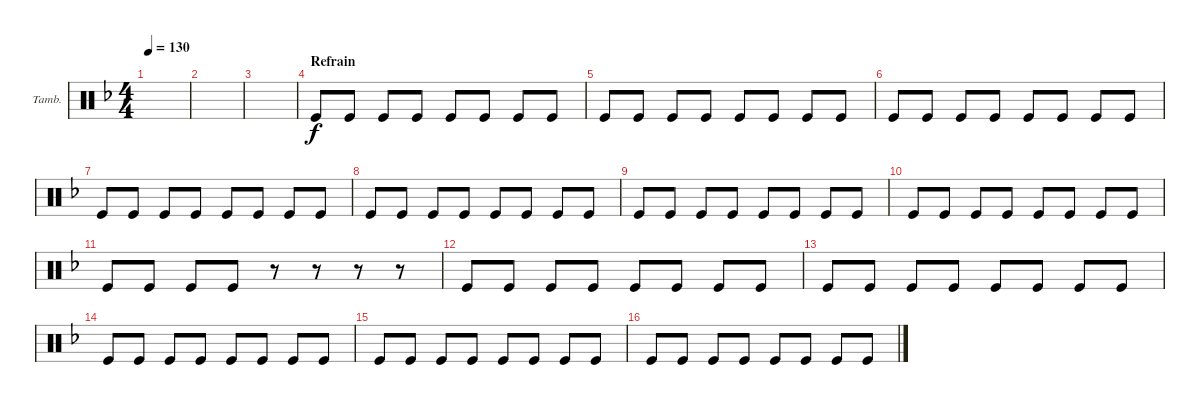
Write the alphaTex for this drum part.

\defaultSystemsLayout 4
\bracketExtendMode groupsimilarinstruments
\firstSystemTrackNameOrientation horizontal
\otherSystemsTrackNameOrientation horizontal
\track ("Tambourine" "Tamb.") {instrument percussion}
\staff {score}
\articulation defaults
\ts (4 4)
\tempo 130
\clef neutral
\ks dminor
|
|
|
\section ("" "Refrain")
"Kick (hit)".8 "Kick (hit)".8 "Kick (hit)".8 "Kick (hit)".8 "Kick (hit)".8 "Kick (hit)".8 "Kick (hit)".8 "Kick (hit)".8 |
"Kick (hit)".8 "Kick (hit)".8 "Kick (hit)".8 "Kick (hit)".8 "Kick (hit)".8 "Kick (hit)".8 "Kick (hit)".8 "Kick (hit)".8 |
"Kick (hit)".8 "Kick (hit)".8 "Kick (hit)".8 "Kick (hit)".8 "Kick (hit)".8 "Kick (hit)".8 "Kick (hit)".8 "Kick (hit)".8 |
"Kick (hit)".8 "Kick (hit)".8 "Kick (hit)".8 "Kick (hit)".8 "Kick (hit)".8 "Kick (hit)".8 "Kick (hit)".8 "Kick (hit)".8 |
"Kick (hit)".8 "Kick (hit)".8 "Kick (hit)".8 "Kick (hit)".8 "Kick (hit)".8 "Kick (hit)".8 "Kick (hit)".8 "Kick (hit)".8 |
"Kick (hit)".8 "Kick (hit)".8 "Kick (hit)".8 "Kick (hit)".8 "Kick (hit)".8 "Kick (hit)".8 "Kick (hit)".8 "Kick (hit)".8 |
"Kick (hit)".8 "Kick (hit)".8 "Kick (hit)".8 "Kick (hit)".8 "Kick (hit)".8 "Kick (hit)".8 "Kick (hit)".8 "Kick (hit)".8 |
"Kick (hit)".8 "Kick (hit)".8 "Kick (hit)".8 "Kick (hit)".8 r.8 r.8 r.8 r.8 |
"Kick (hit)".8 "Kick (hit)".8 "Kick (hit)".8 "Kick (hit)".8 "Kick (hit)".8 "Kick (hit)".8 "Kick (hit)".8 "Kick (hit)".8 |
"Kick (hit)".8 "Kick (hit)".8 "Kick (hit)".8 "Kick (hit)".8 "Kick (hit)".8 "Kick (hit)".8 "Kick (hit)".8 "Kick (hit)".8 |
"Kick (hit)".8 "Kick (hit)".8 "Kick (hit)".8 "Kick (hit)".8 "Kick (hit)".8 "Kick (hit)".8 "Kick (hit)".8 "Kick (hit)".8 |
"Kick (hit)".8 "Kick (hit)".8 "Kick (hit)".8 "Kick (hit)".8 "Kick (hit)".8 "Kick (hit)".8 "Kick (hit)".8 "Kick (hit)".8 |
"Kick (hit)".8 "Kick (hit)".8 "Kick (hit)".8 "Kick (hit)".8 "Kick (hit)".8 "Kick (hit)".8 "Kick (hit)".8 "Kick (hit)".8
